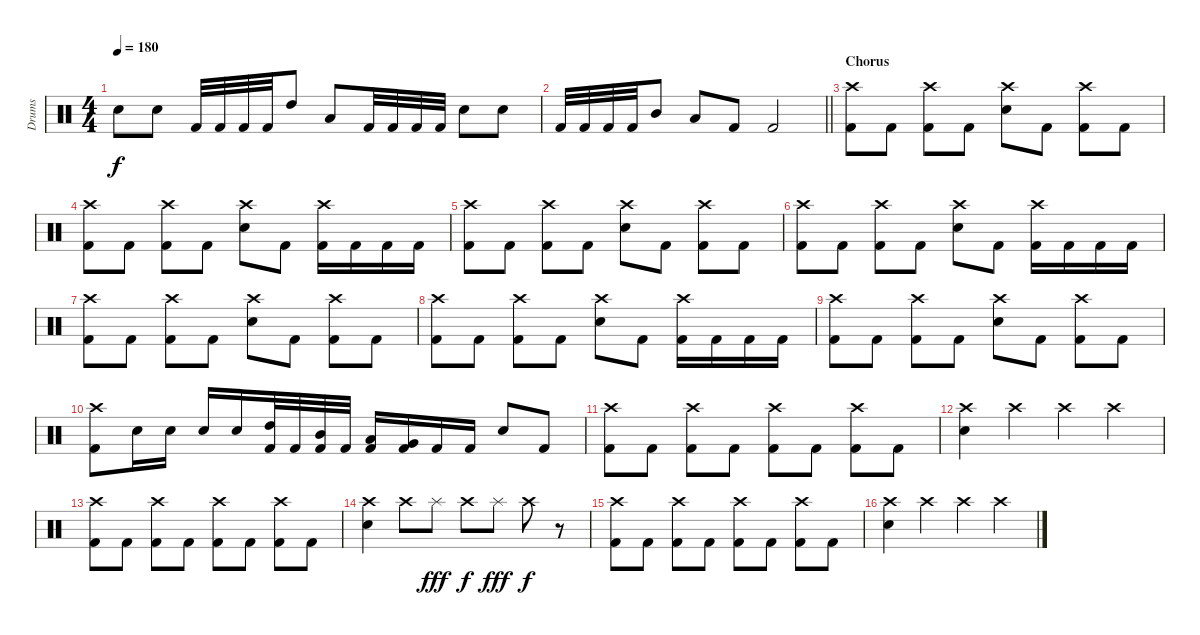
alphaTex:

\track ("Drums" "Drums") {instrument percussion}
\staff {score}
\articulation defaults
\ts (4 4)
\tempo 180
\clef neutral
\ks c "Electric Snare (hit)".8{dy f} "Electric Snare (hit)".8 "Kick (hit) 2".32 "Kick (hit) 2".32 "Kick (hit) 2".32 "Kick (hit) 2".32 "High Tom (hit)".8 "Low Tom (hit)".8 "Kick (hit) 2".32 "Kick (hit) 2".32 "Kick (hit) 2".32 "Kick (hit) 2".32 "Electric Snare (hit)".8 "Electric Snare (hit)".8
|
\barLineRight lightlight "Kick (hit) 2".32 "Kick (hit) 2".32 "Kick (hit) 2".32 "Kick (hit) 2".32 "Mid Tom (hit)".8 "Low Tom (hit)".8 "Kick (hit) 2".8 "Kick (hit) 2".2
|
\section ("" "Chorus")
("Crash high (hit)" "Kick (hit) 2").8 "Kick (hit) 2".8 ("Crash high (hit)" "Kick (hit) 2").8 "Kick (hit) 2".8 ("Crash high (hit)" "Electric Snare (hit)").8 "Kick (hit) 2".8 ("Crash high (hit)" "Kick (hit) 2").8 "Kick (hit) 2".8 |
("Crash high (hit)" "Kick (hit) 2").8 "Kick (hit) 2".8 ("Crash high (hit)" "Kick (hit) 2").8 "Kick (hit) 2".8 ("Crash high (hit)" "Electric Snare (hit)").8 "Kick (hit) 2".8 ("Crash high (hit)" "Kick (hit) 2").16 "Kick (hit) 2".16 "Kick (hit) 2".16 "Kick (hit) 2".16 |
("Crash high (hit)" "Kick (hit) 2").8 "Kick (hit) 2".8 ("Crash high (hit)" "Kick (hit) 2").8 "Kick (hit) 2".8 ("Crash high (hit)" "Electric Snare (hit)").8 "Kick (hit) 2".8 ("Crash high (hit)" "Kick (hit) 2").8 "Kick (hit) 2".8 |
("Crash high (hit)" "Kick (hit) 2").8 "Kick (hit) 2".8 ("Crash high (hit)" "Kick (hit) 2").8 "Kick (hit) 2".8 ("Crash high (hit)" "Electric Snare (hit)").8 "Kick (hit) 2".8 ("Crash high (hit)" "Kick (hit) 2").16 "Kick (hit) 2".16 "Kick (hit) 2".16 "Kick (hit) 2".16 |
("Crash high (hit)" "Kick (hit) 2").8 "Kick (hit) 2".8 ("Crash high (hit)" "Kick (hit) 2").8 "Kick (hit) 2".8 ("Crash high (hit)" "Electric Snare (hit)").8 "Kick (hit) 2".8 ("Crash high (hit)" "Kick (hit) 2").8 "Kick (hit) 2".8 |
("Crash high (hit)" "Kick (hit) 2").8 "Kick (hit) 2".8 ("Crash high (hit)" "Kick (hit) 2").8 "Kick (hit) 2".8 ("Crash high (hit)" "Electric Snare (hit)").8 "Kick (hit) 2".8 ("Crash high (hit)" "Kick (hit) 2").16 "Kick (hit) 2".16 "Kick (hit) 2".16 "Kick (hit) 2".16 |
("Crash high (hit)" "Kick (hit) 2").8 "Kick (hit) 2".8 ("Crash high (hit)" "Kick (hit) 2").8 "Kick (hit) 2".8 ("Crash high (hit)" "Electric Snare (hit)").8 "Kick (hit) 2".8 ("Crash high (hit)" "Kick (hit) 2").8 "Kick (hit) 2".8 |
("Crash high (hit)" "Kick (hit) 2").8 "Electric Snare (hit)".16 "Electric Snare (hit)".16 "Electric Snare (hit)".16 "Electric Snare (hit)".16 ("High Tom (hit)" "Kick (hit) 2").32 "Kick (hit) 2".32 ("Mid Tom (hit)" "Kick (hit) 2").32 "Kick (hit) 2".32 ("Low Tom (hit)" "Kick (hit) 2").16 ("Very Low Tom (hit)" "Kick (hit) 2").16 "Kick (hit) 2".16 "Kick (hit) 2".16 "Electric Snare (hit)".8 "Kick (hit) 2".8 |
("Crash high (hit)" "Kick (hit) 2").8 "Kick (hit) 2".8 ("Crash high (hit)" "Kick (hit) 2").8 "Kick (hit) 2".8 ("Crash high (hit)" "Kick (hit) 2").8 "Kick (hit) 2".8 ("Crash high (hit)" "Kick (hit) 2").8 "Kick (hit) 2".8 |
("Crash high (hit)" "Electric Snare (hit)").4 "Crash high (hit)".4 "Crash high (hit)".4 "Crash high (hit)".4 |
("Crash high (hit)" "Kick (hit) 2").8 "Kick (hit) 2".8 ("Crash high (hit)" "Kick (hit) 2").8 "Kick (hit) 2".8 ("Crash high (hit)" "Kick (hit) 2").8 "Kick (hit) 2".8 ("Crash high (hit)" "Kick (hit) 2").8 "Kick (hit) 2".8 |
("Crash high (hit)" "Electric Snare (hit)").4 "Crash high (hit)".8 "Splash (hit)".8{dy fff} "Crash high (hit)".8{dy f} "Splash (hit)".8{dy fff} "Crash high (hit)".8{dy f} r.8 |
("Crash high (hit)" "Kick (hit) 2").8 "Kick (hit) 2".8 ("Crash high (hit)" "Kick (hit) 2").8 "Kick (hit) 2".8 ("Crash high (hit)" "Kick (hit) 2").8 "Kick (hit) 2".8 ("Crash high (hit)" "Kick (hit) 2").8 "Kick (hit) 2".8 |
("Crash high (hit)" "Electric Snare (hit)").4 "Crash high (hit)".4 "Crash high (hit)".4 "Crash high (hit)".4
